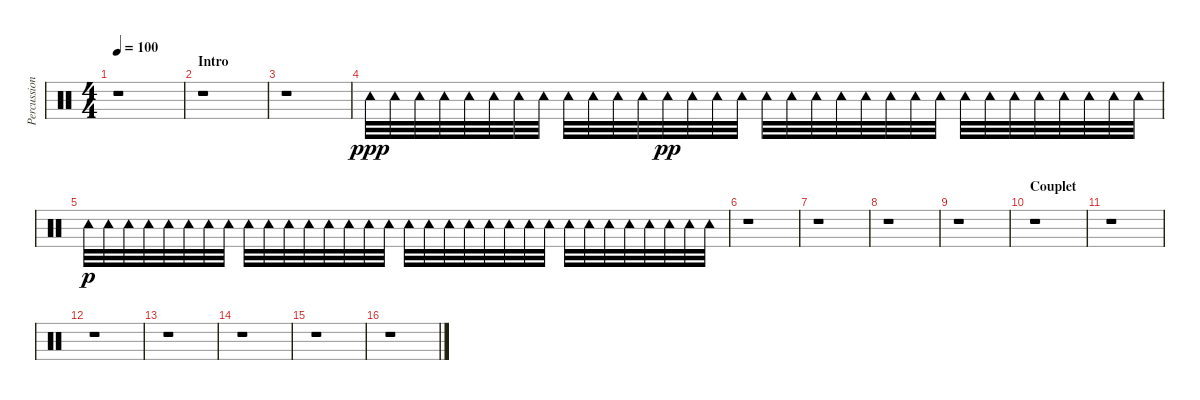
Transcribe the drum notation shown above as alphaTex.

\track ("Percussions" "Percussion") {instrument percussion}
\staff {score}
\articulation defaults
\ts (4 4)
\tempo 100
\clef neutral
\ks c
r.1{dy ppp} |
\section ("" "Intro")
r.1 |
r.1 |
"Tambourine (hit)".32{volume 3} "Tambourine (hit)".32 "Tambourine (hit)".32 "Tambourine (hit)".32 "Tambourine (hit)".32 "Tambourine (hit)".32 "Tambourine (hit)".32 "Tambourine (hit)".32 "Tambourine (hit)".32{volume 8} "Tambourine (hit)".32 "Tambourine (hit)".32 "Tambourine (hit)".32 "Tambourine (hit)".32{dy pp} "Tambourine (hit)".32 "Tambourine (hit)".32 "Tambourine (hit)".32 "Tambourine (hit)".32 "Tambourine (hit)".32 "Tambourine (hit)".32 "Tambourine (hit)".32 "Tambourine (hit)".32 "Tambourine (hit)".32 "Tambourine (hit)".32 "Tambourine (hit)".32 "Tambourine (hit)".32 "Tambourine (hit)".32 "Tambourine (hit)".32 "Tambourine (hit)".32 "Tambourine (hit)".32 "Tambourine (hit)".32 "Tambourine (hit)".32 "Tambourine (hit)".32 |
"Tambourine (hit)".32{dy p volume 11} "Tambourine (hit)".32 "Tambourine (hit)".32 "Tambourine (hit)".32 "Tambourine (hit)".32 "Tambourine (hit)".32 "Tambourine (hit)".32 "Tambourine (hit)".32 "Tambourine (hit)".32 "Tambourine (hit)".32 "Tambourine (hit)".32 "Tambourine (hit)".32 "Tambourine (hit)".32 "Tambourine (hit)".32 "Tambourine (hit)".32 "Tambourine (hit)".32 "Tambourine (hit)".32 "Tambourine (hit)".32 "Tambourine (hit)".32 "Tambourine (hit)".32 "Tambourine (hit)".32 "Tambourine (hit)".32 "Tambourine (hit)".32 "Tambourine (hit)".32 "Tambourine (hit)".32 "Tambourine (hit)".32 "Tambourine (hit)".32 "Tambourine (hit)".32 "Tambourine (hit)".32 "Tambourine (hit)".32 "Tambourine (hit)".32 "Tambourine (hit)".32 |
r.1 |
r.1 |
r.1 |
r.1 |
\section ("" "Couplet")
r.1 |
r.1 |
r.1 |
r.1 |
r.1 |
r.1 |
r.1
